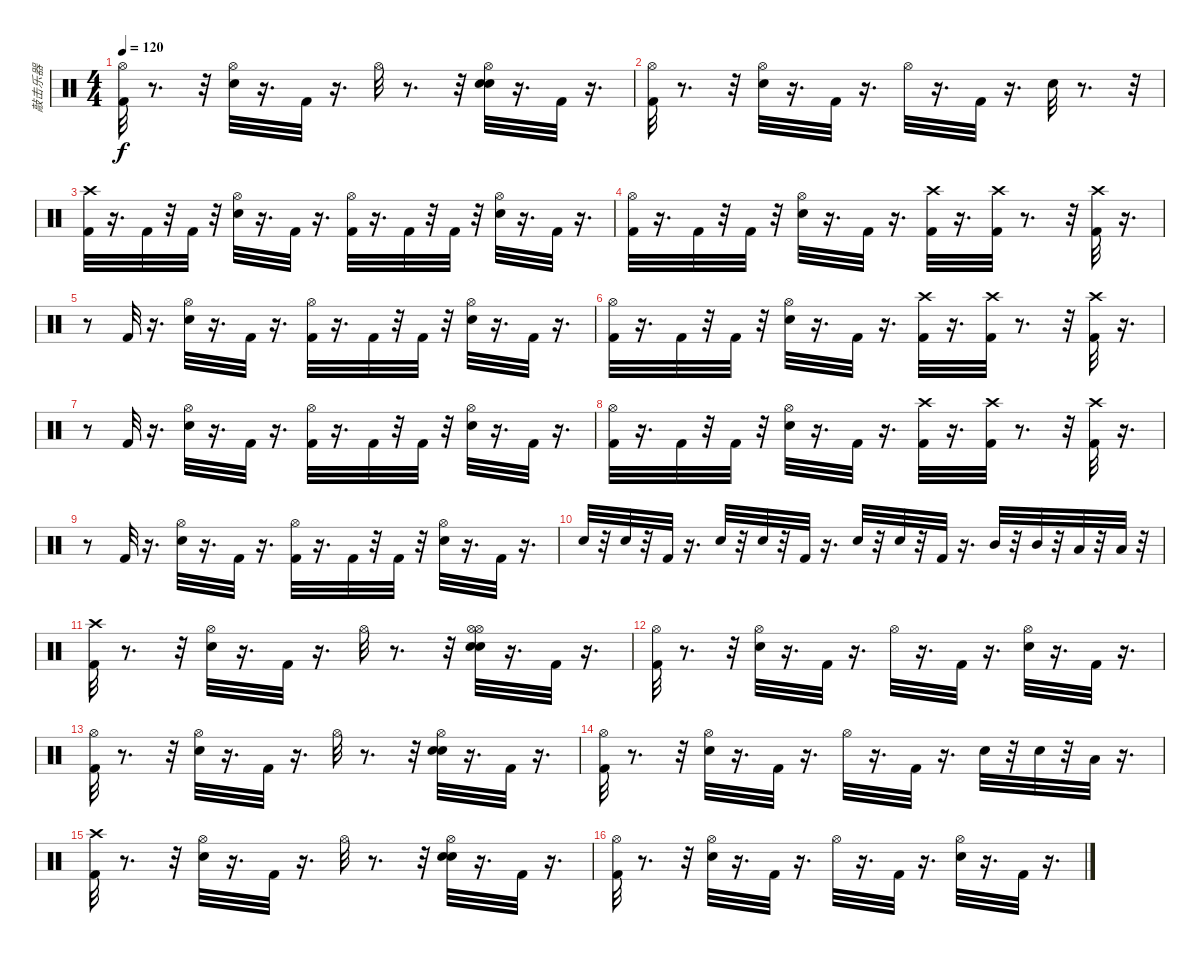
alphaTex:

\track ("敲击乐器" "敲击乐器") {instrument percussion}
\staff {score}
\articulation defaults
\ts (4 4)
\tempo 120
\clef neutral
\ks c
("Hi-Hat (open)" "Kick (hit) 2").32{dy f} r.8{d} r.32 ("Snare (hit) 2" "Hi-Hat (open)").32 r.16{d} "Kick (hit) 2".32 r.16{d} "Hi-Hat (open)".32 r.8{d} r.32 ("Snare (hit) 2" "Hi-Hat (open)" "Snare (hit) 2").32 r.16{d} "Kick (hit) 2".32 r.16{d} |
("Hi-Hat (open)" "Kick (hit) 2").32 r.8{d} r.32 ("Snare (hit) 2" "Hi-Hat (open)").32 r.16{d} "Kick (hit) 2".32 r.16{d} "Hi-Hat (open)".32 r.16{d} "Kick (hit) 2".32 r.16{d} "Snare (hit) 2".32 r.8{d} r.32 |
("Kick (hit) 2" "Crash high (hit)").32 r.16{d} "Kick (hit) 2".32 r.32 "Kick (hit) 2".32 r.32 ("Snare (hit) 2" "Hi-Hat (open)").32 r.16{d} "Kick (hit) 2".32 r.16{d} ("Kick (hit) 2" "Hi-Hat (open)").32 r.16{d} "Kick (hit) 2".32 r.32 "Kick (hit) 2".32 r.32 ("Snare (hit) 2" "Hi-Hat (open)").32 r.16{d} "Kick (hit) 2".32 r.16{d} |
("Kick (hit) 2" "Hi-Hat (open)").32 r.16{d} "Kick (hit) 2".32 r.32 "Kick (hit) 2".32 r.32 ("Snare (hit) 2" "Hi-Hat (open)").32 r.16{d} "Kick (hit) 2".32 r.16{d} ("Crash high (hit)" "Kick (hit) 2").32 r.16{d} ("Crash high (hit)" "Kick (hit) 2").32 r.8{d} r.32 ("Kick (hit) 2" "Crash high (hit)").32 r.16{d} |
r.8 "Kick (hit) 2".32 r.16{d} ("Snare (hit) 2" "Hi-Hat (open)").32 r.16{d} "Kick (hit) 2".32 r.16{d} ("Kick (hit) 2" "Hi-Hat (open)").32 r.16{d} "Kick (hit) 2".32 r.32 "Kick (hit) 2".32 r.32 ("Snare (hit) 2" "Hi-Hat (open)").32 r.16{d} "Kick (hit) 2".32 r.16{d} |
("Kick (hit) 2" "Hi-Hat (open)").32 r.16{d} "Kick (hit) 2".32 r.32 "Kick (hit) 2".32 r.32 ("Hi-Hat (open)" "Snare (hit) 2").32 r.16{d} "Kick (hit) 2".32 r.16{d} ("Crash high (hit)" "Kick (hit) 2").32 r.16{d} ("Crash high (hit)" "Kick (hit) 2").32 r.8{d} r.32 ("Kick (hit) 2" "Crash high (hit)").32 r.16{d} |
r.8 "Kick (hit) 2".32 r.16{d} ("Snare (hit) 2" "Hi-Hat (open)").32 r.16{d} "Kick (hit) 2".32 r.16{d} ("Kick (hit) 2" "Hi-Hat (open)").32 r.16{d} "Kick (hit) 2".32 r.32 "Kick (hit) 2".32 r.32 ("Snare (hit) 2" "Hi-Hat (open)").32 r.16{d} "Kick (hit) 2".32 r.16{d} |
("Kick (hit) 2" "Hi-Hat (open)").32 r.16{d} "Kick (hit) 2".32 r.32 "Kick (hit) 2".32 r.32 ("Snare (hit) 2" "Hi-Hat (open)").32 r.16{d} "Kick (hit) 2".32 r.16{d} ("Crash high (hit)" "Kick (hit) 2").32 r.16{d} ("Crash high (hit)" "Kick (hit) 2").32 r.8{d} r.32 ("Kick (hit) 2" "Crash high (hit)").32 r.16{d} |
r.8 "Kick (hit) 2".32 r.16{d} ("Snare (hit) 2" "Hi-Hat (open)").32 r.16{d} "Kick (hit) 2".32 r.16{d} ("Kick (hit) 2" "Hi-Hat (open)").32 r.16{d} "Kick (hit) 2".32 r.32 "Kick (hit) 2".32 r.32 ("Snare (hit) 2" "Hi-Hat (open)").32 r.16{d} "Kick (hit) 2".32 r.16{d} |
"Snare (hit) 2".32 r.32 "Snare (hit) 2".32 r.32 "Kick (hit) 2".32 r.16{d} "Snare (hit) 2".32 r.32 "Snare (hit) 2".32 r.32 "Kick (hit) 2".32 r.16{d} "Snare (hit) 2".32 r.32 "Snare (hit) 2".32 r.32 "Kick (hit) 2".32 r.16{d} "Mid Tom (hit)".32 r.32 "Mid Tom (hit)".32 r.32 "Low Tom (hit)".32 r.32 "Low Tom (hit)".32 r.32 |
("Kick (hit) 2" "Crash high (hit)").32 r.8{d} r.32 ("Snare (hit) 2" "Hi-Hat (open)").32 r.16{d} "Kick (hit) 2".32 r.16{d} "Hi-Hat (open)".32 r.8{d} r.32 ("Snare (hit) 2" "Hi-Hat (open)" "Snare (hit) 2" "Hi-Hat (open)").32 r.16{d} "Kick (hit) 2".32 r.16{d} |
("Kick (hit) 2" "Hi-Hat (open)").32 r.8{d} r.32 ("Snare (hit) 2" "Hi-Hat (open)").32 r.16{d} "Kick (hit) 2".32 r.16{d} "Hi-Hat (open)".32 r.16{d} "Kick (hit) 2".32 r.16{d} ("Snare (hit) 2" "Hi-Hat (open)").32 r.16{d} "Kick (hit) 2".32 r.16{d} |
("Hi-Hat (open)" "Kick (hit) 2").32 r.8{d} r.32 ("Snare (hit) 2" "Hi-Hat (open)").32 r.16{d} "Kick (hit) 2".32 r.16{d} "Hi-Hat (open)".32 r.8{d} r.32 ("Snare (hit) 2" "Hi-Hat (open)" "Snare (hit) 2").32 r.16{d} "Kick (hit) 2".32 r.16{d} |
("Kick (hit) 2" "Hi-Hat (open)").32 r.8{d} r.32 ("Snare (hit) 2" "Hi-Hat (open)").32 r.16{d} "Kick (hit) 2".32 r.16{d} "Hi-Hat (open)".32 r.16{d} "Kick (hit) 2".32 r.16{d} "Snare (hit) 2".32 r.32 "Snare (hit) 2".32 r.32 "Low Floor Tom (hit)".32 r.16{d} |
("Kick (hit) 2" "Crash high (hit)").32 r.8{d} r.32 ("Snare (hit) 2" "Hi-Hat (open)").32 r.16{d} "Kick (hit) 2".32 r.16{d} "Hi-Hat (open)".32 r.8{d} r.32 ("Snare (hit) 2" "Snare (hit) 2" "Hi-Hat (open)").32 r.16{d} "Kick (hit) 2".32 r.16{d} |
("Kick (hit) 2" "Hi-Hat (open)").32 r.8{d} r.32 ("Snare (hit) 2" "Hi-Hat (open)").32 r.16{d} "Kick (hit) 2".32 r.16{d} "Hi-Hat (open)".32 r.16{d} "Kick (hit) 2".32 r.16{d} ("Hi-Hat (open)" "Snare (hit) 2").32 r.16{d} "Kick (hit) 2".32 r.16{d}
